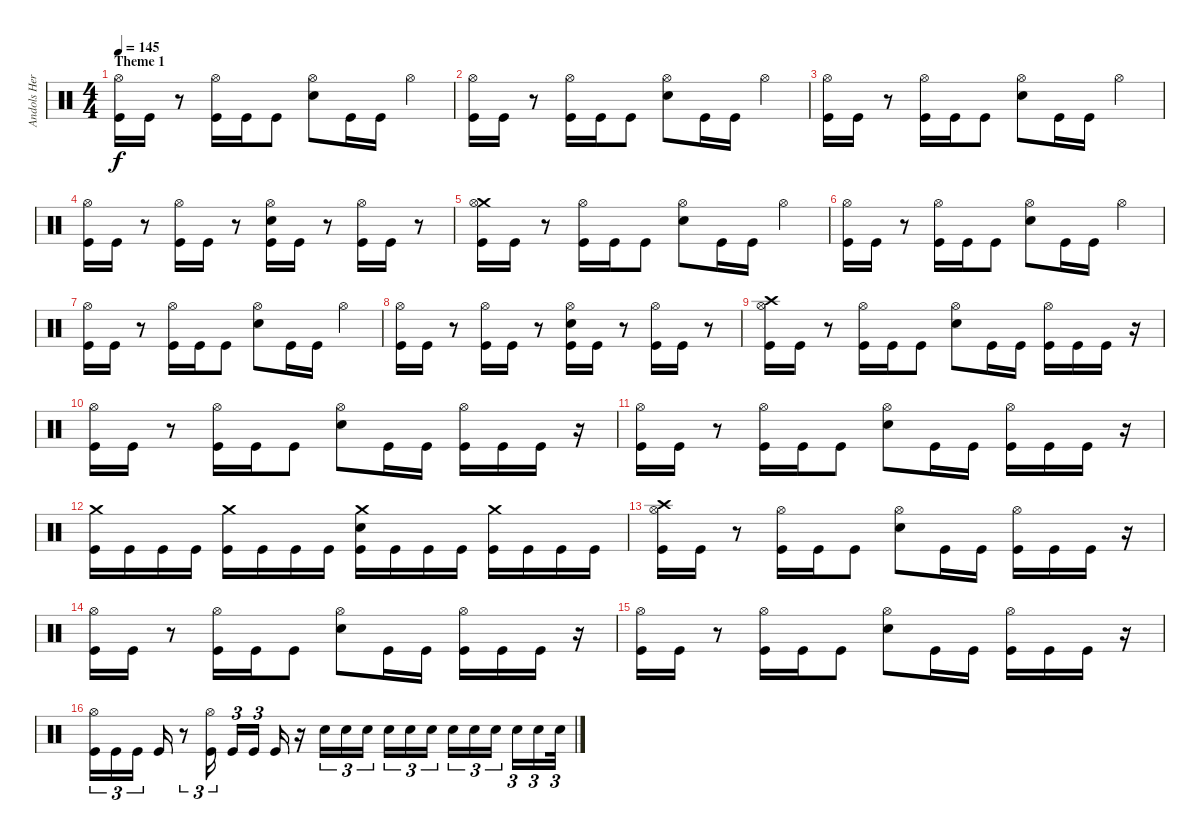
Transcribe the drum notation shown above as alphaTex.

\track ("Andols Herrick" "Andols Her") {instrument percussion}
\staff
\articulation defaults
\ts (4 4)
\section ("" "Theme 1")
\tempo 145
\clef neutral
\ks c
("Hi-Hat (open)" "Kick (hit)").16{dy f} "Kick (hit)".16 r.8 ("Hi-Hat (open)" "Kick (hit)").16 "Kick (hit)".16 "Kick (hit)".8 ("Hi-Hat (open)" "Electric Snare (hit)").8 "Kick (hit)".16 "Kick (hit)".16 "Hi-Hat (open)".4 |
("Hi-Hat (open)" "Kick (hit)").16 "Kick (hit)".16 r.8 ("Hi-Hat (open)" "Kick (hit)").16 "Kick (hit)".16 "Kick (hit)".8 ("Hi-Hat (open)" "Electric Snare (hit)").8 "Kick (hit)".16 "Kick (hit)".16 "Hi-Hat (open)".4 |
("Hi-Hat (open)" "Kick (hit)").16 "Kick (hit)".16 r.8 ("Hi-Hat (open)" "Kick (hit)").16 "Kick (hit)".16 "Kick (hit)".8 ("Hi-Hat (open)" "Electric Snare (hit)").8 "Kick (hit)".16 "Kick (hit)".16 "Hi-Hat (open)".4 |
("Hi-Hat (open)" "Kick (hit)").16 "Kick (hit)".16 r.8 ("Hi-Hat (open)" "Kick (hit)").16 "Kick (hit)".16 r.8 ("Hi-Hat (open)" "Electric Snare (hit)" "Kick (hit)").16 "Kick (hit)".16 r.8 ("Hi-Hat (open)" "Kick (hit)").16 "Kick (hit)".16 r.8 |
("Crash medium (hit)" "Hi-Hat (open)" "Kick (hit)").16 "Kick (hit)".16 r.8 ("Hi-Hat (open)" "Kick (hit)").16 "Kick (hit)".16 "Kick (hit)".8 ("Hi-Hat (open)" "Electric Snare (hit)").8 "Kick (hit)".16 "Kick (hit)".16 "Hi-Hat (open)".4 |
("Hi-Hat (open)" "Kick (hit)").16 "Kick (hit)".16 r.8 ("Hi-Hat (open)" "Kick (hit)").16 "Kick (hit)".16 "Kick (hit)".8 ("Hi-Hat (open)" "Electric Snare (hit)").8 "Kick (hit)".16 "Kick (hit)".16 "Hi-Hat (open)".4 |
("Hi-Hat (open)" "Kick (hit)").16 "Kick (hit)".16 r.8 ("Hi-Hat (open)" "Kick (hit)").16 "Kick (hit)".16 "Kick (hit)".8 ("Hi-Hat (open)" "Electric Snare (hit)").8 "Kick (hit)".16 "Kick (hit)".16 "Hi-Hat (open)".4 |
("Hi-Hat (open)" "Kick (hit)").16 "Kick (hit)".16 r.8 ("Hi-Hat (open)" "Kick (hit)").16 "Kick (hit)".16 r.8 ("Hi-Hat (open)" "Electric Snare (hit)" "Kick (hit)").16 "Kick (hit)".16 r.8 ("Hi-Hat (open)" "Kick (hit)").16 "Kick (hit)".16 r.8 |
("Crash high (hit)" "Hi-Hat (open)" "Kick (hit)").16 "Kick (hit)".16 r.8 ("Hi-Hat (open)" "Kick (hit)").16 "Kick (hit)".16 "Kick (hit)".8 ("Hi-Hat (open)" "Electric Snare (hit)").8 "Kick (hit)".16 "Kick (hit)".16 ("Hi-Hat (open)" "Kick (hit)").16 "Kick (hit)".16 "Kick (hit)".16 r.16 |
("Hi-Hat (open)" "Kick (hit)").16 "Kick (hit)".16 r.8 ("Hi-Hat (open)" "Kick (hit)").16 "Kick (hit)".16 "Kick (hit)".8 ("Hi-Hat (open)" "Electric Snare (hit)").8 "Kick (hit)".16 "Kick (hit)".16 ("Hi-Hat (open)" "Kick (hit)").16 "Kick (hit)".16 "Kick (hit)".16 r.16 |
("Hi-Hat (open)" "Kick (hit)").16 "Kick (hit)".16 r.8 ("Hi-Hat (open)" "Kick (hit)").16 "Kick (hit)".16 "Kick (hit)".8 ("Hi-Hat (open)" "Electric Snare (hit)").8 "Kick (hit)".16 "Kick (hit)".16 ("Hi-Hat (open)" "Kick (hit)").16 "Kick (hit)".16 "Kick (hit)".16 r.16 |
("Crash medium (hit)" "Kick (hit)").16 "Kick (hit)".16 "Kick (hit)".16 "Kick (hit)".16 ("Crash medium (hit)" "Kick (hit)").16 "Kick (hit)".16 "Kick (hit)".16 "Kick (hit)".16 ("Crash medium (hit)" "Electric Snare (hit)" "Kick (hit)").16 "Kick (hit)".16 "Kick (hit)".16 "Kick (hit)".16 ("Crash medium (hit)" "Kick (hit)").16 "Kick (hit)".16 "Kick (hit)".16 "Kick (hit)".16 |
("Crash high (hit)" "Hi-Hat (open)" "Kick (hit)").16 "Kick (hit)".16 r.8 ("Hi-Hat (open)" "Kick (hit)").16 "Kick (hit)".16 "Kick (hit)".8 ("Hi-Hat (open)" "Electric Snare (hit)").8 "Kick (hit)".16 "Kick (hit)".16 ("Hi-Hat (open)" "Kick (hit)").16 "Kick (hit)".16 "Kick (hit)".16 r.16 |
("Hi-Hat (open)" "Kick (hit)").16 "Kick (hit)".16 r.8 ("Hi-Hat (open)" "Kick (hit)").16 "Kick (hit)".16 "Kick (hit)".8 ("Hi-Hat (open)" "Electric Snare (hit)").8 "Kick (hit)".16 "Kick (hit)".16 ("Hi-Hat (open)" "Kick (hit)").16 "Kick (hit)".16 "Kick (hit)".16 r.16 |
("Hi-Hat (open)" "Kick (hit)").16 "Kick (hit)".16 r.8 ("Hi-Hat (open)" "Kick (hit)").16 "Kick (hit)".16 "Kick (hit)".8 ("Hi-Hat (open)" "Electric Snare (hit)").8 "Kick (hit)".16 "Kick (hit)".16 ("Hi-Hat (open)" "Kick (hit)").16 "Kick (hit)".16 "Kick (hit)".16 r.16 |
("Hi-Hat (open)" "Kick (hit)").16{tu (3 2)} "Kick (hit)".16{tu (3 2)} "Kick (hit)".16{tu (3 2) beam splitsecondary} "Kick (hit)".16 r.8{tu (3 2)} ("Hi-Hat (open)" "Kick (hit)").16{tu (3 2) beam splitsecondary} "Kick (hit)".16{tu (3 2)} "Kick (hit)".16{tu (3 2) beam splitsecondary} "Kick (hit)".16 r.16 "Electric Snare (hit)".16{tu (3 2)} "Electric Snare (hit)".16{tu (3 2)} "Electric Snare (hit)".16{tu (3 2) beam splitsecondary} "Electric Snare (hit)".16{tu (3 2)} "Electric Snare (hit)".16{tu (3 2)} "Electric Snare (hit)".16{tu (3 2)} "Electric Snare (hit)".16{tu (3 2)} "Electric Snare (hit)".16{tu (3 2)} "Electric Snare (hit)".16{tu (3 2) beam splitsecondary} "Electric Snare (hit)".16{tu (3 2)} "Electric Snare (hit)".16{tu (3 2)} "Electric Snare (hit)".32{tu (3 2)}
